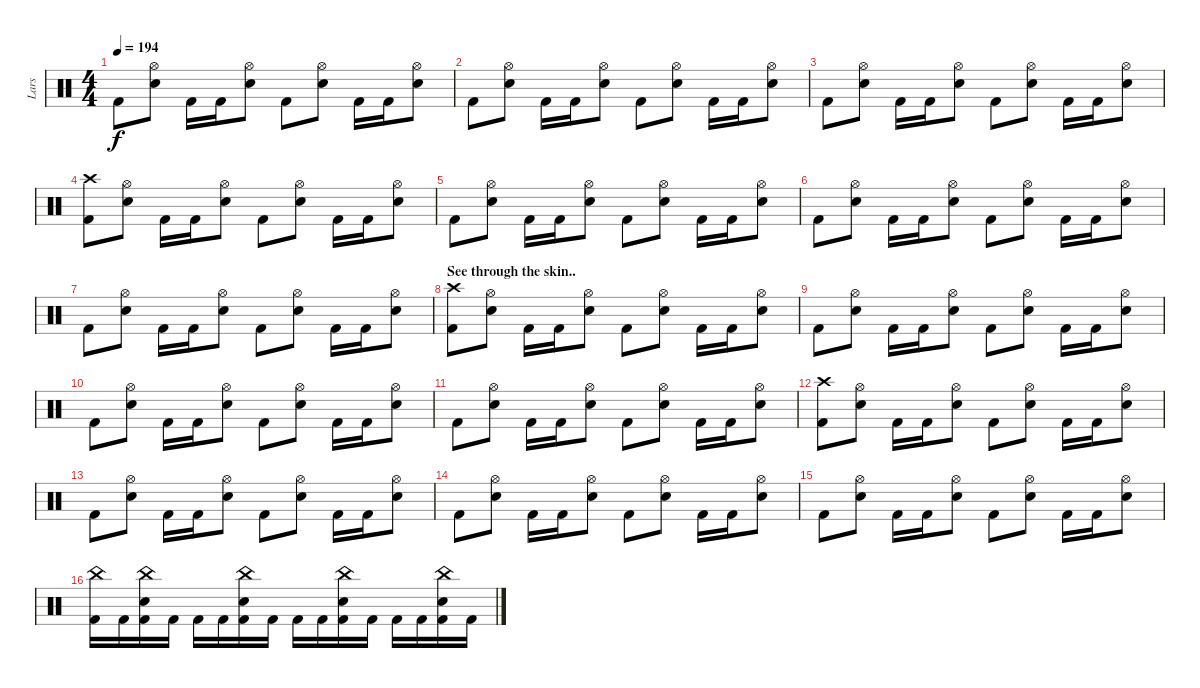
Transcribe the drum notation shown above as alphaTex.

\track ("Lars" "Lars") {instrument percussion}
\staff {score}
\articulation defaults
\ts (4 4)
\tempo 194
\clef neutral
\ks c "Kick (hit) 2".8{dy f}
("Electric Snare (hit)" "Hi-Hat (open)").8 "Kick (hit) 2".16 "Kick (hit) 2".16 ("Electric Snare (hit)" "Hi-Hat (open)").8 "Kick (hit) 2".8 ("Electric Snare (hit)" "Hi-Hat (open)").8 "Kick (hit) 2".16 "Kick (hit) 2".16 ("Electric Snare (hit)" "Hi-Hat (open)").8 |
"Kick (hit) 2".8 ("Electric Snare (hit)" "Hi-Hat (open)").8 "Kick (hit) 2".16 "Kick (hit) 2".16 ("Electric Snare (hit)" "Hi-Hat (open)").8 "Kick (hit) 2".8 ("Electric Snare (hit)" "Hi-Hat (open)").8 "Kick (hit) 2".16 "Kick (hit) 2".16 ("Electric Snare (hit)" "Hi-Hat (open)").8 |
"Kick (hit) 2".8 ("Electric Snare (hit)" "Hi-Hat (open)").8 "Kick (hit) 2".16 "Kick (hit) 2".16 ("Electric Snare (hit)" "Hi-Hat (open)").8 "Kick (hit) 2".8 ("Electric Snare (hit)" "Hi-Hat (open)").8 "Kick (hit) 2".16 "Kick (hit) 2".16 ("Electric Snare (hit)" "Hi-Hat (open)").8 |
("Kick (hit) 2" "Crash high (hit)").8 ("Electric Snare (hit)" "Hi-Hat (open)").8 "Kick (hit) 2".16 "Kick (hit) 2".16 ("Electric Snare (hit)" "Hi-Hat (open)").8 "Kick (hit) 2".8 ("Electric Snare (hit)" "Hi-Hat (open)").8 "Kick (hit) 2".16 "Kick (hit) 2".16 ("Electric Snare (hit)" "Hi-Hat (open)").8 |
"Kick (hit) 2".8 ("Electric Snare (hit)" "Hi-Hat (open)").8 "Kick (hit) 2".16 "Kick (hit) 2".16 ("Electric Snare (hit)" "Hi-Hat (open)").8 "Kick (hit) 2".8 ("Electric Snare (hit)" "Hi-Hat (open)").8 "Kick (hit) 2".16 "Kick (hit) 2".16 ("Electric Snare (hit)" "Hi-Hat (open)").8 |
"Kick (hit) 2".8 ("Electric Snare (hit)" "Hi-Hat (open)").8 "Kick (hit) 2".16 "Kick (hit) 2".16 ("Electric Snare (hit)" "Hi-Hat (open)").8 "Kick (hit) 2".8 ("Electric Snare (hit)" "Hi-Hat (open)").8 "Kick (hit) 2".16 "Kick (hit) 2".16 ("Electric Snare (hit)" "Hi-Hat (open)").8 |
"Kick (hit) 2".8 ("Electric Snare (hit)" "Hi-Hat (open)").8 "Kick (hit) 2".16 "Kick (hit) 2".16 ("Electric Snare (hit)" "Hi-Hat (open)").8 "Kick (hit) 2".8 ("Electric Snare (hit)" "Hi-Hat (open)").8 "Kick (hit) 2".16 "Kick (hit) 2".16 ("Electric Snare (hit)" "Hi-Hat (open)").8 |
\section ("" "See through the skin..")
("Kick (hit) 2" "Crash high (hit)").8 ("Electric Snare (hit)" "Hi-Hat (open)").8 "Kick (hit) 2".16 "Kick (hit) 2".16 ("Electric Snare (hit)" "Hi-Hat (open)").8 "Kick (hit) 2".8 ("Electric Snare (hit)" "Hi-Hat (open)").8 "Kick (hit) 2".16 "Kick (hit) 2".16 ("Electric Snare (hit)" "Hi-Hat (open)").8 |
"Kick (hit) 2".8 ("Electric Snare (hit)" "Hi-Hat (open)").8 "Kick (hit) 2".16 "Kick (hit) 2".16 ("Electric Snare (hit)" "Hi-Hat (open)").8 "Kick (hit) 2".8 ("Electric Snare (hit)" "Hi-Hat (open)").8 "Kick (hit) 2".16 "Kick (hit) 2".16 ("Electric Snare (hit)" "Hi-Hat (open)").8 |
"Kick (hit) 2".8 ("Electric Snare (hit)" "Hi-Hat (open)").8 "Kick (hit) 2".16 "Kick (hit) 2".16 ("Electric Snare (hit)" "Hi-Hat (open)").8 "Kick (hit) 2".8 ("Electric Snare (hit)" "Hi-Hat (open)").8 "Kick (hit) 2".16 "Kick (hit) 2".16 ("Electric Snare (hit)" "Hi-Hat (open)").8 |
"Kick (hit) 2".8 ("Electric Snare (hit)" "Hi-Hat (open)").8 "Kick (hit) 2".16 "Kick (hit) 2".16 ("Electric Snare (hit)" "Hi-Hat (open)").8 "Kick (hit) 2".8 ("Electric Snare (hit)" "Hi-Hat (open)").8 "Kick (hit) 2".16 "Kick (hit) 2".16 ("Electric Snare (hit)" "Hi-Hat (open)").8 |
("Kick (hit) 2" "Crash high (hit)").8 ("Electric Snare (hit)" "Hi-Hat (open)").8 "Kick (hit) 2".16 "Kick (hit) 2".16 ("Electric Snare (hit)" "Hi-Hat (open)").8 "Kick (hit) 2".8 ("Electric Snare (hit)" "Hi-Hat (open)").8 "Kick (hit) 2".16 "Kick (hit) 2".16 ("Electric Snare (hit)" "Hi-Hat (open)").8 |
"Kick (hit) 2".8 ("Electric Snare (hit)" "Hi-Hat (open)").8 "Kick (hit) 2".16 "Kick (hit) 2".16 ("Electric Snare (hit)" "Hi-Hat (open)").8 "Kick (hit) 2".8 ("Electric Snare (hit)" "Hi-Hat (open)").8 "Kick (hit) 2".16 "Kick (hit) 2".16 ("Electric Snare (hit)" "Hi-Hat (open)").8 |
"Kick (hit) 2".8 ("Electric Snare (hit)" "Hi-Hat (open)").8 "Kick (hit) 2".16 "Kick (hit) 2".16 ("Electric Snare (hit)" "Hi-Hat (open)").8 "Kick (hit) 2".8 ("Electric Snare (hit)" "Hi-Hat (open)").8 "Kick (hit) 2".16 "Kick (hit) 2".16 ("Electric Snare (hit)" "Hi-Hat (open)").8 |
"Kick (hit) 2".8 ("Electric Snare (hit)" "Hi-Hat (open)").8 "Kick (hit) 2".16 "Kick (hit) 2".16 ("Electric Snare (hit)" "Hi-Hat (open)").8 "Kick (hit) 2".8 ("Electric Snare (hit)" "Hi-Hat (open)").8 "Kick (hit) 2".16 "Kick (hit) 2".16 ("Electric Snare (hit)" "Hi-Hat (open)").8 |
\section ("" "")
("Kick (hit) 2" "China (hit)").16 "Kick (hit) 2".16 ("Kick (hit) 2" "Electric Snare (hit)" "China (hit)").16 "Kick (hit) 2".16 "Kick (hit) 2".16 "Kick (hit) 2".16 ("Kick (hit) 2" "Electric Snare (hit)" "China (hit)").16 "Kick (hit) 2".16 "Kick (hit) 2".16 "Kick (hit) 2".16 ("Kick (hit) 2" "Electric Snare (hit)" "China (hit)").16 "Kick (hit) 2".16 "Kick (hit) 2".16 "Kick (hit) 2".16 ("Kick (hit) 2" "Electric Snare (hit)" "China (hit)").16 "Kick (hit) 2".16
